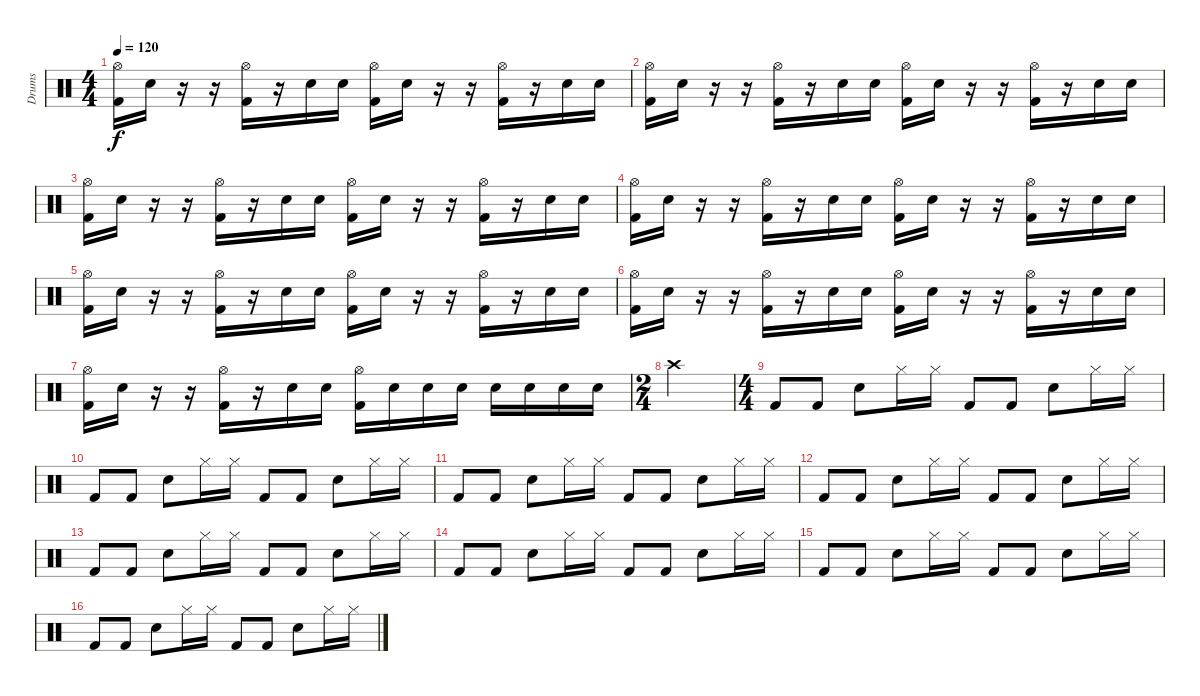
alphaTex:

\track ("Drums" "Drums") {instrument percussion}
\staff {score}
\articulation defaults
\ts (4 4)
\tempo 120
\clef neutral
\ks c
("Hi-Hat (open)" "Kick (hit) 2").16{dy f} "Snare (hit) 2".16 r.16 r.16 ("Hi-Hat (open)" "Kick (hit) 2").16 r.16 "Snare (hit) 2".16 "Electric Snare (hit)".16 ("Hi-Hat (open)" "Kick (hit) 2").16 "Snare (hit) 2".16 r.16 r.16 ("Hi-Hat (open)" "Kick (hit) 2").16 r.16 "Snare (hit) 2".16 "Electric Snare (hit)".16 |
("Hi-Hat (open)" "Kick (hit) 2").16 "Snare (hit) 2".16 r.16 r.16 ("Hi-Hat (open)" "Kick (hit) 2").16 r.16 "Snare (hit) 2".16 "Electric Snare (hit)".16 ("Hi-Hat (open)" "Kick (hit) 2").16 "Snare (hit) 2".16 r.16 r.16 ("Hi-Hat (open)" "Kick (hit) 2").16 r.16 "Snare (hit) 2".16 "Electric Snare (hit)".16 |
("Hi-Hat (open)" "Kick (hit) 2").16 "Snare (hit) 2".16 r.16 r.16 ("Hi-Hat (open)" "Kick (hit) 2").16 r.16 "Snare (hit) 2".16 "Electric Snare (hit)".16 ("Hi-Hat (open)" "Kick (hit) 2").16 "Snare (hit) 2".16 r.16 r.16 ("Hi-Hat (open)" "Kick (hit) 2").16 r.16 "Snare (hit) 2".16 "Electric Snare (hit)".16 |
("Hi-Hat (open)" "Kick (hit) 2").16 "Snare (hit) 2".16 r.16 r.16 ("Hi-Hat (open)" "Kick (hit) 2").16 r.16 "Snare (hit) 2".16 "Electric Snare (hit)".16 ("Hi-Hat (open)" "Kick (hit) 2").16 "Snare (hit) 2".16 r.16 r.16 ("Hi-Hat (open)" "Kick (hit) 2").16 r.16 "Snare (hit) 2".16 "Electric Snare (hit)".16 |
("Hi-Hat (open)" "Kick (hit) 2").16 "Snare (hit) 2".16 r.16 r.16 ("Hi-Hat (open)" "Kick (hit) 2").16 r.16 "Snare (hit) 2".16 "Electric Snare (hit)".16 ("Hi-Hat (open)" "Kick (hit) 2").16 "Snare (hit) 2".16 r.16 r.16 ("Hi-Hat (open)" "Kick (hit) 2").16 r.16 "Snare (hit) 2".16 "Electric Snare (hit)".16 |
("Hi-Hat (open)" "Kick (hit) 2").16 "Snare (hit) 2".16 r.16 r.16 ("Hi-Hat (open)" "Kick (hit) 2").16 r.16 "Snare (hit) 2".16 "Electric Snare (hit)".16 ("Hi-Hat (open)" "Kick (hit) 2").16 "Snare (hit) 2".16 r.16 r.16 ("Hi-Hat (open)" "Kick (hit) 2").16 r.16 "Snare (hit) 2".16 "Electric Snare (hit)".16 |
("Hi-Hat (open)" "Kick (hit) 2").16 "Snare (hit) 2".16 r.16 r.16 ("Hi-Hat (open)" "Kick (hit) 2").16 r.16 "Snare (hit) 2".16 "Electric Snare (hit)".16 ("Hi-Hat (open)" "Kick (hit) 2").16 "Snare (hit) 2".16 "Snare (hit) 2".16 "Electric Snare (hit)".16 "Snare (hit) 2".16 "Electric Snare (hit)".16 "Snare (hit) 2".16 "Electric Snare (hit)".16 |
\ts (2 4)
"Crash high (hit)".2 |
\ts (4 4)
\section ("" "")
"Kick (hit) 2".8 "Kick (hit) 2".8 "Snare (hit) 2".8 "Hi-Hat (closed)".16 "Hi-Hat (closed)".16 "Kick (hit) 2".8 "Kick (hit) 2".8 "Snare (hit) 2".8 "Hi-Hat (closed)".16 "Hi-Hat (closed)".16 |
"Kick (hit) 2".8 "Kick (hit) 2".8 "Snare (hit) 2".8 "Hi-Hat (closed)".16 "Hi-Hat (closed)".16 "Kick (hit) 2".8 "Kick (hit) 2".8 "Snare (hit) 2".8 "Hi-Hat (closed)".16 "Hi-Hat (closed)".16 |
"Kick (hit) 2".8 "Kick (hit) 2".8 "Snare (hit) 2".8 "Hi-Hat (closed)".16 "Hi-Hat (closed)".16 "Kick (hit) 2".8 "Kick (hit) 2".8 "Snare (hit) 2".8 "Hi-Hat (closed)".16 "Hi-Hat (closed)".16 |
"Kick (hit) 2".8 "Kick (hit) 2".8 "Snare (hit) 2".8 "Hi-Hat (closed)".16 "Hi-Hat (closed)".16 "Kick (hit) 2".8 "Kick (hit) 2".8 "Snare (hit) 2".8 "Hi-Hat (closed)".16 "Hi-Hat (closed)".16 |
"Kick (hit) 2".8 "Kick (hit) 2".8 "Snare (hit) 2".8 "Hi-Hat (closed)".16 "Hi-Hat (closed)".16 "Kick (hit) 2".8 "Kick (hit) 2".8 "Snare (hit) 2".8 "Hi-Hat (closed)".16 "Hi-Hat (closed)".16 |
"Kick (hit) 2".8 "Kick (hit) 2".8 "Snare (hit) 2".8 "Hi-Hat (closed)".16 "Hi-Hat (closed)".16 "Kick (hit) 2".8 "Kick (hit) 2".8 "Snare (hit) 2".8 "Hi-Hat (closed)".16 "Hi-Hat (closed)".16 |
"Kick (hit) 2".8 "Kick (hit) 2".8 "Snare (hit) 2".8 "Hi-Hat (closed)".16 "Hi-Hat (closed)".16 "Kick (hit) 2".8 "Kick (hit) 2".8 "Snare (hit) 2".8 "Hi-Hat (closed)".16 "Hi-Hat (closed)".16 |
"Kick (hit) 2".8 "Kick (hit) 2".8 "Snare (hit) 2".8 "Hi-Hat (closed)".16 "Hi-Hat (closed)".16 "Kick (hit) 2".8 "Kick (hit) 2".8 "Snare (hit) 2".8 "Hi-Hat (closed)".16 "Hi-Hat (closed)".16
